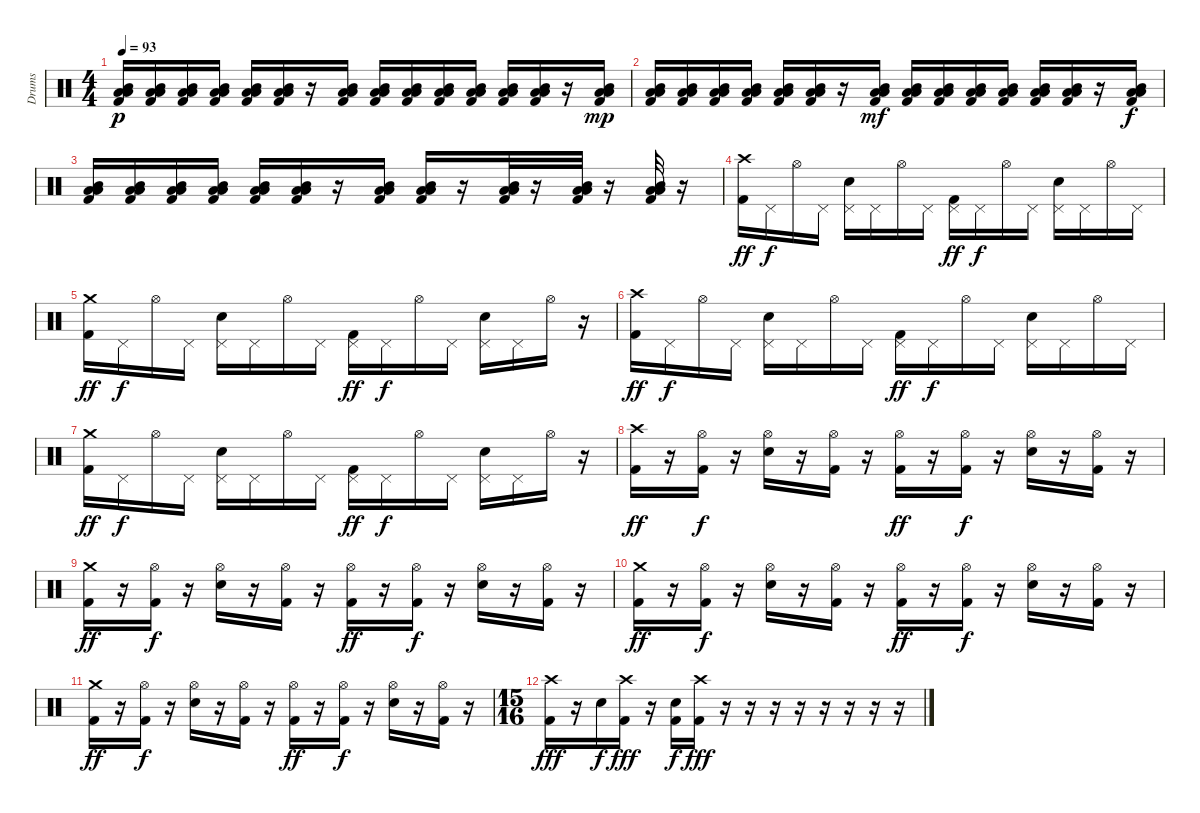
\track ("Drums" "Drums") {instrument percussion}
\staff {score}
\articulation defaults
\ts (4 4)
\tempo 93
\clef neutral
\ks c
("Mid Tom (hit)" "Low Tom (hit)" "Low Tom (hit)" "Kick (hit) 2").16{dy p} ("Mid Tom (hit)" "Low Tom (hit)" "Low Tom (hit)" "Kick (hit) 2").16 ("Mid Tom (hit)" "Low Tom (hit)" "Low Tom (hit)" "Kick (hit) 2").16 ("Mid Tom (hit)" "Low Tom (hit)" "Low Tom (hit)" "Kick (hit) 2").16 ("Mid Tom (hit)" "Low Tom (hit)" "Low Tom (hit)" "Kick (hit) 2").16 ("Mid Tom (hit)" "Low Tom (hit)" "Low Tom (hit)" "Kick (hit) 2").16 r.16 ("Mid Tom (hit)" "Low Tom (hit)" "Low Tom (hit)" "Kick (hit) 2").16 ("Mid Tom (hit)" "Low Tom (hit)" "Low Tom (hit)" "Kick (hit) 2").16 ("Mid Tom (hit)" "Low Tom (hit)" "Low Tom (hit)" "Kick (hit) 2").16 ("Mid Tom (hit)" "Low Tom (hit)" "Low Tom (hit)" "Kick (hit) 2").16 ("Mid Tom (hit)" "Low Tom (hit)" "Low Tom (hit)" "Kick (hit) 2").16 ("Mid Tom (hit)" "Low Tom (hit)" "Low Tom (hit)" "Kick (hit) 2").16 ("Mid Tom (hit)" "Low Tom (hit)" "Low Tom (hit)" "Kick (hit) 2").16 r.16 ("Mid Tom (hit)" "Low Tom (hit)" "Low Tom (hit)" "Kick (hit) 2").16{dy mp} |
("Mid Tom (hit)" "Low Tom (hit)" "Low Tom (hit)" "Kick (hit) 2").16 ("Mid Tom (hit)" "Low Tom (hit)" "Low Tom (hit)" "Kick (hit) 2").16 ("Mid Tom (hit)" "Low Tom (hit)" "Low Tom (hit)" "Kick (hit) 2").16 ("Mid Tom (hit)" "Low Tom (hit)" "Low Tom (hit)" "Kick (hit) 2").16 ("Mid Tom (hit)" "Low Tom (hit)" "Low Tom (hit)" "Kick (hit) 2").16 ("Mid Tom (hit)" "Low Tom (hit)" "Low Tom (hit)" "Kick (hit) 2").16 r.16 ("Mid Tom (hit)" "Low Tom (hit)" "Low Tom (hit)" "Kick (hit) 2").16{dy mf} ("Mid Tom (hit)" "Low Tom (hit)" "Low Tom (hit)" "Kick (hit) 2").16 ("Mid Tom (hit)" "Low Tom (hit)" "Low Tom (hit)" "Kick (hit) 2").16 ("Mid Tom (hit)" "Low Tom (hit)" "Low Tom (hit)" "Kick (hit) 2").16 ("Mid Tom (hit)" "Low Tom (hit)" "Low Tom (hit)" "Kick (hit) 2").16 ("Mid Tom (hit)" "Low Tom (hit)" "Low Tom (hit)" "Kick (hit) 2").16 ("Mid Tom (hit)" "Low Tom (hit)" "Low Tom (hit)" "Kick (hit) 2").16 r.16 ("Mid Tom (hit)" "Low Tom (hit)" "Low Tom (hit)" "Kick (hit) 2").16{dy f} |
("Mid Tom (hit)" "Low Tom (hit)" "Low Tom (hit)" "Kick (hit) 2").16 ("Mid Tom (hit)" "Low Tom (hit)" "Low Tom (hit)" "Kick (hit) 2").16 ("Mid Tom (hit)" "Low Tom (hit)" "Low Tom (hit)" "Kick (hit) 2").16 ("Mid Tom (hit)" "Low Tom (hit)" "Low Tom (hit)" "Kick (hit) 2").16 ("Mid Tom (hit)" "Low Tom (hit)" "Low Tom (hit)" "Kick (hit) 2").16 ("Mid Tom (hit)" "Low Tom (hit)" "Low Tom (hit)" "Kick (hit) 2").16 r.16 ("Mid Tom (hit)" "Low Tom (hit)" "Low Tom (hit)" "Kick (hit) 2").16 ("Mid Tom (hit)" "Low Tom (hit)" "Low Tom (hit)" "Kick (hit) 2").16 r.16 ("Mid Tom (hit)" "Low Tom (hit)" "Low Tom (hit)" "Kick (hit) 2").32 r.16 ("Mid Tom (hit)" "Low Tom (hit)" "Low Tom (hit)" "Kick (hit) 2").32 r.16 ("Mid Tom (hit)" "Low Tom (hit)" "Low Tom (hit)" "Kick (hit) 2").32 r.16 |
("Crash high (hit)" "Kick (hit) 2").16{dy ff} "Pedal Hi-Hat (hit)".16{dy f} "Hi-Hat (open)".16 "Pedal Hi-Hat (hit)".16 ("Pedal Hi-Hat (hit)" "Electric Snare (hit)").16 "Pedal Hi-Hat (hit)".16 "Hi-Hat (open)".16 "Pedal Hi-Hat (hit)".16 ("Pedal Hi-Hat (hit)" "Kick (hit) 2").16{dy ff} "Pedal Hi-Hat (hit)".16{dy f} "Hi-Hat (open)".16 "Pedal Hi-Hat (hit)".16 ("Pedal Hi-Hat (hit)" "Electric Snare (hit)").16 "Pedal Hi-Hat (hit)".16 "Hi-Hat (open)".16 "Pedal Hi-Hat (hit)".16 |
("Crash medium (hit)" "Kick (hit) 2").16{dy ff} "Pedal Hi-Hat (hit)".16{dy f} "Hi-Hat (open)".16 "Pedal Hi-Hat (hit)".16 ("Pedal Hi-Hat (hit)" "Electric Snare (hit)").16 "Pedal Hi-Hat (hit)".16 "Hi-Hat (open)".16 "Pedal Hi-Hat (hit)".16 ("Pedal Hi-Hat (hit)" "Kick (hit) 2").16{dy ff} "Pedal Hi-Hat (hit)".16{dy f} "Hi-Hat (open)".16 "Pedal Hi-Hat (hit)".16 ("Pedal Hi-Hat (hit)" "Electric Snare (hit)").16 "Pedal Hi-Hat (hit)".16 "Hi-Hat (open)".16 r.16 |
("Crash high (hit)" "Kick (hit) 2").16{dy ff} "Pedal Hi-Hat (hit)".16{dy f} "Hi-Hat (open)".16 "Pedal Hi-Hat (hit)".16 ("Pedal Hi-Hat (hit)" "Electric Snare (hit)").16 "Pedal Hi-Hat (hit)".16 "Hi-Hat (open)".16 "Pedal Hi-Hat (hit)".16 ("Pedal Hi-Hat (hit)" "Kick (hit) 2").16{dy ff} "Pedal Hi-Hat (hit)".16{dy f} "Hi-Hat (open)".16 "Pedal Hi-Hat (hit)".16 ("Pedal Hi-Hat (hit)" "Electric Snare (hit)").16 "Pedal Hi-Hat (hit)".16 "Hi-Hat (open)".16 "Pedal Hi-Hat (hit)".16 |
("Crash medium (hit)" "Kick (hit) 2").16{dy ff} "Pedal Hi-Hat (hit)".16{dy f} "Hi-Hat (open)".16 "Pedal Hi-Hat (hit)".16 ("Pedal Hi-Hat (hit)" "Electric Snare (hit)").16 "Pedal Hi-Hat (hit)".16 "Hi-Hat (open)".16 "Pedal Hi-Hat (hit)".16 ("Pedal Hi-Hat (hit)" "Kick (hit) 2").16{dy ff} "Pedal Hi-Hat (hit)".16{dy f} "Hi-Hat (open)".16 "Pedal Hi-Hat (hit)".16 ("Pedal Hi-Hat (hit)" "Electric Snare (hit)").16 "Pedal Hi-Hat (hit)".16 "Hi-Hat (open)".16 r.16 |
("Crash high (hit)" "Kick (hit) 2").16{dy ff} r.16 ("Hi-Hat (open)" "Kick (hit) 2").16{dy f} r.16 ("Hi-Hat (open)" "Electric Snare (hit)").16 r.16 ("Hi-Hat (open)" "Kick (hit) 2").16 r.16 ("Hi-Hat (open)" "Kick (hit) 2").16{dy ff} r.16 ("Hi-Hat (open)" "Kick (hit) 2").16{dy f} r.16 ("Hi-Hat (open)" "Electric Snare (hit)").16 r.16 ("Hi-Hat (open)" "Kick (hit) 2").16 r.16 |
("Crash medium (hit)" "Kick (hit) 2").16{dy ff} r.16 ("Hi-Hat (open)" "Kick (hit) 2").16{dy f} r.16 ("Hi-Hat (open)" "Electric Snare (hit)").16 r.16 ("Hi-Hat (open)" "Kick (hit) 2").16 r.16 ("Hi-Hat (open)" "Kick (hit) 2").16{dy ff} r.16 ("Hi-Hat (open)" "Kick (hit) 2").16{dy f} r.16 ("Hi-Hat (open)" "Electric Snare (hit)").16 r.16 ("Hi-Hat (open)" "Kick (hit) 2").16 r.16 |
("Crash medium (hit)" "Kick (hit) 2").16{dy ff} r.16 ("Hi-Hat (open)" "Kick (hit) 2").16{dy f} r.16 ("Hi-Hat (open)" "Electric Snare (hit)").16 r.16 ("Hi-Hat (open)" "Kick (hit) 2").16 r.16 ("Hi-Hat (open)" "Kick (hit) 2").16{dy ff} r.16 ("Hi-Hat (open)" "Kick (hit) 2").16{dy f} r.16 ("Hi-Hat (open)" "Electric Snare (hit)").16 r.16 ("Hi-Hat (open)" "Kick (hit) 2").16 r.16 |
("Crash medium (hit)" "Kick (hit) 2").16{dy ff} r.16 ("Hi-Hat (open)" "Kick (hit) 2").16{dy f} r.16 ("Hi-Hat (open)" "Electric Snare (hit)").16 r.16 ("Hi-Hat (open)" "Kick (hit) 2").16 r.16 ("Hi-Hat (open)" "Kick (hit) 2").16{dy ff} r.16 ("Hi-Hat (open)" "Kick (hit) 2").16{dy f} r.16 ("Hi-Hat (open)" "Electric Snare (hit)").16 r.16 ("Hi-Hat (open)" "Kick (hit) 2").16 r.16 |
\ts (15 16)
("Crash high (hit)" "Kick (hit) 2").16{dy fff} r.16 "Electric Snare (hit)".16{dy f} ("Crash high (hit)" "Kick (hit) 2").16{dy fff} r.16 ("Electric Snare (hit)" "Kick (hit) 2").16{dy f} ("Crash high (hit)" "Kick (hit) 2").16{dy fff} r.16 r.16 r.16 r.16 r.16 r.16 r.16 r.16
